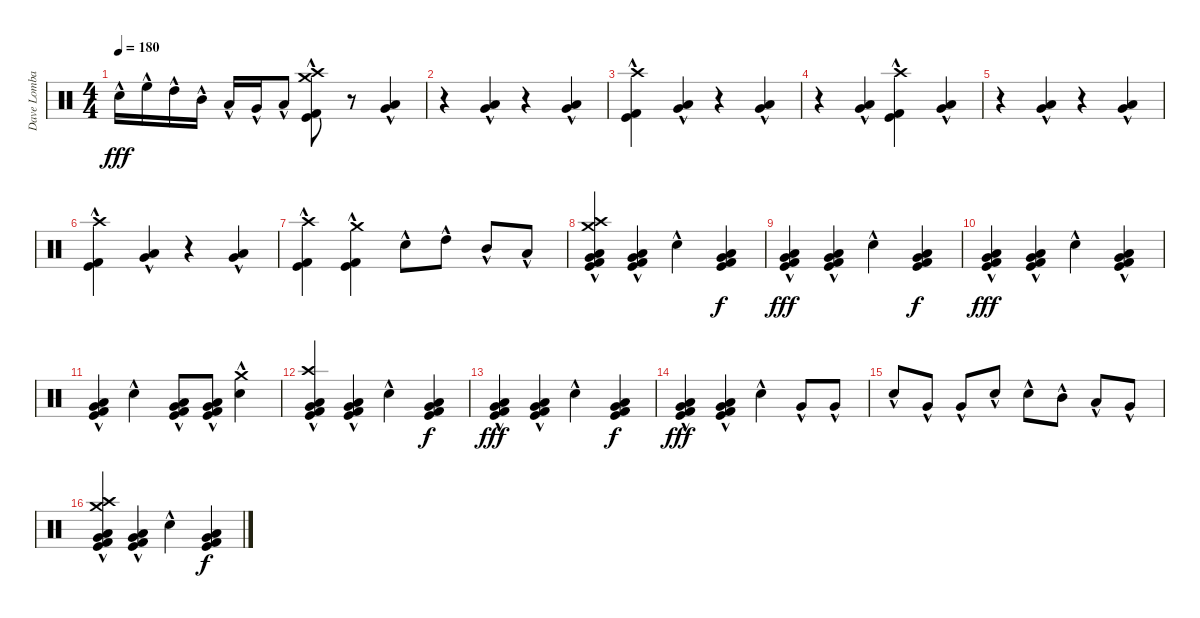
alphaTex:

\track ("Dave Lombardo:" "Dave Lomba") {instrument percussion}
\staff {score}
\articulation defaults
\ts (4 4)
\tempo 180
\clef neutral
\ks c "Snare (hit) 2"{hac}.16{dy fff} "High Floor Tom (hit)"{hac}.16 "High Tom (hit)"{hac}.16 "Mid Tom (hit)"{hac}.16 "Low Tom (hit)"{hac}.16 "Very Low Tom (hit)"{hac}.16 "Low Floor Tom (hit)"{hac}.8
("Crash medium (hit)"{hac} "Crash high (hit)"{hac} "Kick (hit) 2"{hac} "Kick (hit)"{hac}).8 r.8 ("Low Floor Tom (hit)"{hac} "Very Low Tom (hit)"{hac}).4 |
r.4 ("Very Low Tom (hit)"{hac} "Low Floor Tom (hit)"{hac}).4 r.4 ("Very Low Tom (hit)"{hac} "Low Floor Tom (hit)"{hac}).4 |
("Crash high (hit)"{hac} "Kick (hit)"{hac} "Kick (hit) 2"{hac}).4 ("Very Low Tom (hit)"{hac} "Low Floor Tom (hit)"{hac}).4 r.4 ("Low Floor Tom (hit)"{hac} "Very Low Tom (hit)"{hac}).4 |
r.4 ("Low Floor Tom (hit)"{hac} "Very Low Tom (hit)"{hac}).4 ("Crash high (hit)"{hac} "Kick (hit)"{hac} "Kick (hit) 2"{hac}).4 ("Low Floor Tom (hit)"{hac} "Very Low Tom (hit)"{hac}).4 |
r.4 ("Low Floor Tom (hit)"{hac} "Very Low Tom (hit)"{hac}).4 r.4 ("Very Low Tom (hit)"{hac} "Low Floor Tom (hit)"{hac}).4 |
("Crash high (hit)"{hac} "Kick (hit)"{hac} "Kick (hit) 2"{hac}).4 ("Very Low Tom (hit)"{hac} "Low Floor Tom (hit)"{hac}).4 r.4 ("Very Low Tom (hit)"{hac} "Low Floor Tom (hit)"{hac}).4 |
("Crash high (hit)" "Kick (hit) 2"{hac} "Kick (hit)"{hac}).4 ("Crash medium (hit)" "Kick (hit) 2"{hac} "Kick (hit)"{hac}).4 "Snare (hit) 2"{hac}.8 "High Tom (hit)"{hac}.8 "Mid Tom (hit)"{hac}.8 "Low Tom (hit)"{hac}.8 |
("Crash high (hit)"{hac} "Crash medium (hit)"{hac} "Very Low Tom (hit)" "Low Floor Tom (hit)" "Kick (hit) 2"{hac} "Kick (hit)"{hac}).4 ("Very Low Tom (hit)" "Low Floor Tom (hit)" "Kick (hit) 2"{hac} "Kick (hit)"{hac}).4 "Snare (hit) 2"{hac}.4 ("Very Low Tom (hit)" "Low Floor Tom (hit)" "Kick (hit)" "Kick (hit) 2").4{dy f} |
("Very Low Tom (hit)"{hac} "Low Floor Tom (hit)"{hac} "Kick (hit)"{hac} "Kick (hit) 2"{hac}).4{dy fff} ("Very Low Tom (hit)"{hac} "Low Floor Tom (hit)"{hac} "Kick (hit)"{hac} "Kick (hit) 2"{hac}).4 "Snare (hit) 2"{hac}.4 ("Very Low Tom (hit)" "Low Floor Tom (hit)" "Kick (hit)" "Kick (hit) 2").4{dy f} |
("Very Low Tom (hit)"{hac} "Low Floor Tom (hit)"{hac} "Kick (hit)"{hac} "Kick (hit) 2"{hac}).4{dy fff} ("Very Low Tom (hit)"{hac} "Low Floor Tom (hit)"{hac} "Kick (hit)"{hac} "Kick (hit) 2"{hac}).4 "Snare (hit) 2"{hac}.4 ("Very Low Tom (hit)" "Low Floor Tom (hit)" "Kick (hit)" "Kick (hit) 2"{hac}).4 |
("Very Low Tom (hit)"{hac} "Low Floor Tom (hit)"{hac} "Kick (hit)"{hac} "Kick (hit) 2"{hac}).4 "Snare (hit) 2"{hac}.4 ("Very Low Tom (hit)"{hac} "Low Floor Tom (hit)"{hac} "Kick (hit)"{hac} "Kick (hit) 2"{hac}).8 ("Very Low Tom (hit)"{hac} "Low Floor Tom (hit)"{hac} "Kick (hit)"{hac} "Kick (hit) 2"{hac}).8 ("Crash medium (hit)" "Snare (hit) 2"{hac}).4 |
("Crash high (hit)" "Very Low Tom (hit)" "Low Floor Tom (hit)" "Kick (hit)" "Kick (hit) 2"{hac}).4 ("Very Low Tom (hit)" "Low Floor Tom (hit)" "Kick (hit)" "Kick (hit) 2"{hac}).4 "Snare (hit) 2"{hac}.4 ("Very Low Tom (hit)" "Low Floor Tom (hit)" "Kick (hit)" "Kick (hit) 2").4{dy f} |
("Very Low Tom (hit)"{hac} "Low Floor Tom (hit)"{hac} "Kick (hit)"{hac} "Kick (hit) 2"{hac}).4{dy fff} ("Very Low Tom (hit)"{hac} "Low Floor Tom (hit)"{hac} "Kick (hit)"{hac} "Kick (hit) 2"{hac}).4 "Snare (hit) 2"{hac}.4 ("Very Low Tom (hit)" "Low Floor Tom (hit)" "Kick (hit)" "Kick (hit) 2").4{dy f} |
("Very Low Tom (hit)"{hac} "Low Floor Tom (hit)"{hac} "Kick (hit)"{hac} "Kick (hit) 2"{hac}).4{dy fff} ("Very Low Tom (hit)"{hac} "Low Floor Tom (hit)"{hac} "Kick (hit)"{hac} "Kick (hit) 2"{hac}).4 "Snare (hit) 2"{hac}.4 "Very Low Tom (hit)"{hac}.8 "Very Low Tom (hit)"{hac}.8 |
"Snare (hit) 2"{hac}.8 "Very Low Tom (hit)"{hac}.8 "Very Low Tom (hit)"{hac}.8 "Snare (hit) 2"{hac}.8 "Snare (hit) 2"{hac}.8 "Mid Tom (hit)"{hac}.8 "Low Tom (hit)"{hac}.8 "Very Low Tom (hit)"{hac}.8 |
("Crash high (hit)"{hac} "Crash medium (hit)"{hac} "Very Low Tom (hit)" "Low Floor Tom (hit)" "Kick (hit) 2"{hac} "Kick (hit)"{hac}).4 ("Very Low Tom (hit)" "Low Floor Tom (hit)" "Kick (hit) 2"{hac} "Kick (hit)"{hac}).4 "Snare (hit) 2"{hac}.4 ("Very Low Tom (hit)" "Low Floor Tom (hit)" "Kick (hit)" "Kick (hit) 2").4{dy f}
